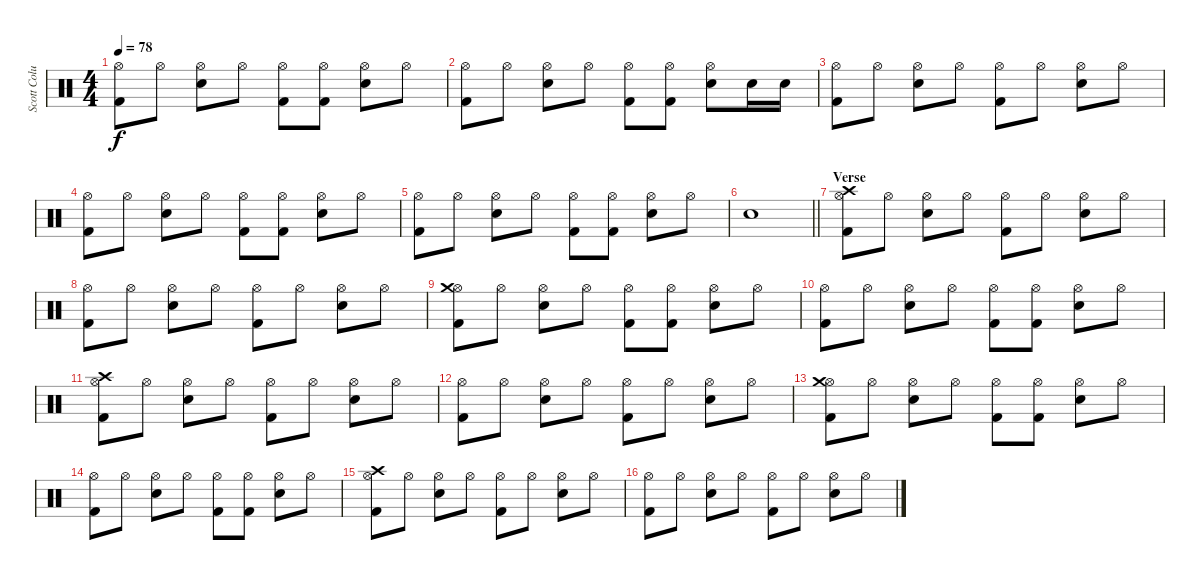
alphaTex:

\track ("Scott Columbus" "Scott Colu") {instrument percussion}
\staff {score}
\articulation defaults
\ts (4 4)
\tempo 78
\clef neutral
\ks c
("Kick (hit) 2" "Hi-Hat (open)").8{dy f} "Hi-Hat (open)".8 ("Electric Snare (hit)" "Hi-Hat (open)").8 "Hi-Hat (open)".8 ("Kick (hit) 2" "Hi-Hat (open)").8 ("Kick (hit) 2" "Hi-Hat (open)").8 ("Electric Snare (hit)" "Hi-Hat (open)").8 "Hi-Hat (open)".8 |
("Kick (hit) 2" "Hi-Hat (open)").8 "Hi-Hat (open)".8 ("Electric Snare (hit)" "Hi-Hat (open)").8 "Hi-Hat (open)".8 ("Kick (hit) 2" "Hi-Hat (open)").8 ("Kick (hit) 2" "Hi-Hat (open)").8 ("Electric Snare (hit)" "Hi-Hat (open)").8 "Electric Snare (hit)".16 "Electric Snare (hit)".16 |
("Kick (hit) 2" "Hi-Hat (open)").8 "Hi-Hat (open)".8 ("Electric Snare (hit)" "Hi-Hat (open)").8 "Hi-Hat (open)".8 ("Kick (hit) 2" "Hi-Hat (open)").8 "Hi-Hat (open)".8 ("Electric Snare (hit)" "Hi-Hat (open)").8 "Hi-Hat (open)".8 |
("Kick (hit) 2" "Hi-Hat (open)").8 "Hi-Hat (open)".8 ("Electric Snare (hit)" "Hi-Hat (open)").8 "Hi-Hat (open)".8 ("Kick (hit) 2" "Hi-Hat (open)").8 ("Kick (hit) 2" "Hi-Hat (open)").8 ("Electric Snare (hit)" "Hi-Hat (open)").8 "Hi-Hat (open)".8 |
("Kick (hit) 2" "Hi-Hat (open)").8 "Hi-Hat (open)".8 ("Electric Snare (hit)" "Hi-Hat (open)").8 "Hi-Hat (open)".8 ("Kick (hit) 2" "Hi-Hat (open)").8 ("Kick (hit) 2" "Hi-Hat (open)").8 ("Electric Snare (hit)" "Hi-Hat (open)").8 "Hi-Hat (open)".8 |
\barLineRight lightlight "Electric Snare (hit)".1
|
\section ("" "Verse")
("Kick (hit) 2" "Hi-Hat (open)" "Crash high (hit)").8 "Hi-Hat (open)".8 ("Electric Snare (hit)" "Hi-Hat (open)").8 "Hi-Hat (open)".8 ("Kick (hit) 2" "Hi-Hat (open)").8 "Hi-Hat (open)".8 ("Electric Snare (hit)" "Hi-Hat (open)").8 "Hi-Hat (open)".8 |
("Kick (hit) 2" "Hi-Hat (open)").8 "Hi-Hat (open)".8 ("Electric Snare (hit)" "Hi-Hat (open)").8 "Hi-Hat (open)".8 ("Kick (hit) 2" "Hi-Hat (open)").8 "Hi-Hat (open)".8 ("Electric Snare (hit)" "Hi-Hat (open)").8 "Hi-Hat (open)".8 |
("Kick (hit) 2" "Hi-Hat (open)" "Crash medium (hit)").8 "Hi-Hat (open)".8 ("Electric Snare (hit)" "Hi-Hat (open)").8 "Hi-Hat (open)".8 ("Kick (hit) 2" "Hi-Hat (open)").8 ("Kick (hit) 2" "Hi-Hat (open)").8 ("Electric Snare (hit)" "Hi-Hat (open)").8 "Hi-Hat (open)".8 |
("Kick (hit) 2" "Hi-Hat (open)").8 "Hi-Hat (open)".8 ("Electric Snare (hit)" "Hi-Hat (open)").8 "Hi-Hat (open)".8 ("Kick (hit) 2" "Hi-Hat (open)").8 ("Kick (hit) 2" "Hi-Hat (open)").8 ("Electric Snare (hit)" "Hi-Hat (open)").8 "Hi-Hat (open)".8 |
("Kick (hit) 2" "Hi-Hat (open)" "Crash high (hit)").8 "Hi-Hat (open)".8 ("Electric Snare (hit)" "Hi-Hat (open)").8 "Hi-Hat (open)".8 ("Kick (hit) 2" "Hi-Hat (open)").8 "Hi-Hat (open)".8 ("Electric Snare (hit)" "Hi-Hat (open)").8 "Hi-Hat (open)".8 |
("Kick (hit) 2" "Hi-Hat (open)").8 "Hi-Hat (open)".8 ("Electric Snare (hit)" "Hi-Hat (open)").8 "Hi-Hat (open)".8 ("Kick (hit) 2" "Hi-Hat (open)").8 "Hi-Hat (open)".8 ("Electric Snare (hit)" "Hi-Hat (open)").8 "Hi-Hat (open)".8 |
("Kick (hit) 2" "Hi-Hat (open)" "Crash medium (hit)").8 "Hi-Hat (open)".8 ("Electric Snare (hit)" "Hi-Hat (open)").8 "Hi-Hat (open)".8 ("Kick (hit) 2" "Hi-Hat (open)").8 ("Kick (hit) 2" "Hi-Hat (open)").8 ("Electric Snare (hit)" "Hi-Hat (open)").8 "Hi-Hat (open)".8 |
("Kick (hit) 2" "Hi-Hat (open)").8 "Hi-Hat (open)".8 ("Electric Snare (hit)" "Hi-Hat (open)").8 "Hi-Hat (open)".8 ("Kick (hit) 2" "Hi-Hat (open)").8 ("Kick (hit) 2" "Hi-Hat (open)").8 ("Electric Snare (hit)" "Hi-Hat (open)").8 "Hi-Hat (open)".8 |
("Kick (hit) 2" "Hi-Hat (open)" "Crash high (hit)").8 "Hi-Hat (open)".8 ("Electric Snare (hit)" "Hi-Hat (open)").8 "Hi-Hat (open)".8 ("Kick (hit) 2" "Hi-Hat (open)").8 "Hi-Hat (open)".8 ("Electric Snare (hit)" "Hi-Hat (open)").8 "Hi-Hat (open)".8 |
("Kick (hit) 2" "Hi-Hat (open)").8 "Hi-Hat (open)".8 ("Electric Snare (hit)" "Hi-Hat (open)").8 "Hi-Hat (open)".8 ("Kick (hit) 2" "Hi-Hat (open)").8 "Hi-Hat (open)".8 ("Electric Snare (hit)" "Hi-Hat (open)").8 "Hi-Hat (open)".8
